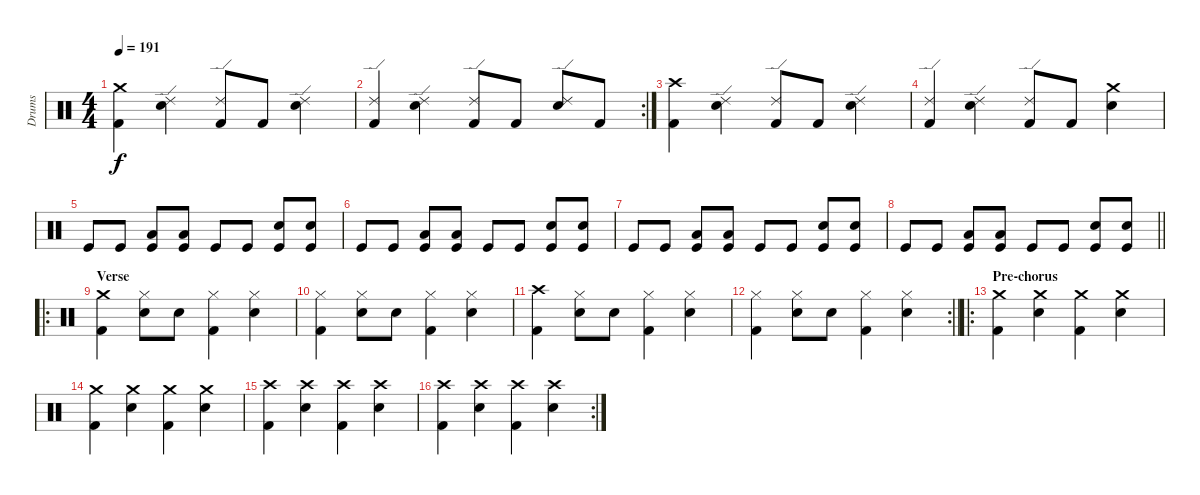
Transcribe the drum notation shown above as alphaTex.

\track ("Drums" "Drums") {instrument percussion}
\staff {score}
\articulation defaults
\ts (4 4)
\tempo 191
\clef neutral
\ks c
("Crash medium (hit)" "Kick (hit) 2").4{dy f} ("Ride (edge) 2" "Snare (hit) 2").4 ("Ride (edge) 2" "Kick (hit) 2").8 "Kick (hit) 2".8 ("Ride (edge) 2" "Snare (hit) 2").4 |
\rc 2
("Ride (edge) 2" "Kick (hit) 2").4 ("Ride (edge) 2" "Snare (hit) 2").4 ("Ride (edge) 2" "Kick (hit) 2").8 "Kick (hit) 2".8 ("Ride (edge) 2" "Snare (hit) 2").8 "Kick (hit) 2".8 |
("Crash high (hit)" "Kick (hit) 2").4 ("Ride (edge) 2" "Snare (hit) 2").4 ("Ride (edge) 2" "Kick (hit) 2").8 "Kick (hit) 2".8 ("Ride (edge) 2" "Snare (hit) 2").4 |
("Ride (edge) 2" "Kick (hit) 2").4 ("Ride (edge) 2" "Snare (hit) 2").4 ("Ride (edge) 2" "Kick (hit) 2").8 "Kick (hit) 2".8 ("Crash medium (hit)" "Snare (hit) 2").4 |
"Kick (hit)".8 "Kick (hit)".8 ("Low Floor Tom (hit)" "Kick (hit)").8 ("Low Floor Tom (hit)" "Kick (hit)").8 "Kick (hit)".8 "Kick (hit)".8 ("Electric Snare (hit)" "Kick (hit)").8 ("Electric Snare (hit)" "Kick (hit)").8 |
"Kick (hit)".8 "Kick (hit)".8 ("Low Floor Tom (hit)" "Kick (hit)").8 ("Low Floor Tom (hit)" "Kick (hit)").8 "Kick (hit)".8 "Kick (hit)".8 ("Electric Snare (hit)" "Kick (hit)").8 ("Electric Snare (hit)" "Kick (hit)").8 |
"Kick (hit)".8 "Kick (hit)".8 ("Low Floor Tom (hit)" "Kick (hit)").8 ("Low Floor Tom (hit)" "Kick (hit)").8 "Kick (hit)".8 "Kick (hit)".8 ("Electric Snare (hit)" "Kick (hit)").8 ("Electric Snare (hit)" "Kick (hit)").8 |
\barLineRight lightlight "Kick (hit)".8 "Kick (hit)".8
("Low Floor Tom (hit)" "Kick (hit)").8 ("Low Floor Tom (hit)" "Kick (hit)").8 "Kick (hit)".8 "Kick (hit)".8 ("Electric Snare (hit)" "Kick (hit)").8 ("Electric Snare (hit)" "Kick (hit)").8 |
\ro
\section ("" "Verse")
("Crash medium (hit)" "Kick (hit) 2").4 ("Hi-Hat (closed)" "Electric Snare (hit)").8 "Electric Snare (hit)".8 ("Hi-Hat (closed)" "Kick (hit) 2").4 ("Hi-Hat (closed)" "Electric Snare (hit)").4 |
("Hi-Hat (closed)" "Kick (hit) 2").4 ("Hi-Hat (closed)" "Electric Snare (hit)").8 "Electric Snare (hit)".8 ("Hi-Hat (closed)" "Kick (hit) 2").4 ("Hi-Hat (closed)" "Electric Snare (hit)").4 |
("Crash high (hit)" "Kick (hit) 2").4 ("Hi-Hat (closed)" "Electric Snare (hit)").8 "Electric Snare (hit)".8 ("Hi-Hat (closed)" "Kick (hit) 2").4 ("Hi-Hat (closed)" "Electric Snare (hit)").4 |
\rc 2
\barLineRight lightlight
("Hi-Hat (closed)" "Kick (hit) 2").4 ("Hi-Hat (closed)" "Electric Snare (hit)").8 "Electric Snare (hit)".8 ("Hi-Hat (closed)" "Kick (hit) 2").4 ("Hi-Hat (closed)" "Electric Snare (hit)").4 |
\ro
\section ("" "Pre-chorus")
("Crash medium (hit)" "Kick (hit) 2").4 ("Crash medium (hit)" "Snare (hit) 2").4 ("Crash medium (hit)" "Kick (hit) 2").4 ("Crash medium (hit)" "Snare (hit) 2").4 |
("Crash medium (hit)" "Kick (hit) 2").4 ("Crash medium (hit)" "Snare (hit) 2").4 ("Crash medium (hit)" "Kick (hit) 2").4 ("Crash medium (hit)" "Snare (hit) 2").4 |
("Crash high (hit)" "Kick (hit) 2").4 ("Crash high (hit)" "Snare (hit) 2").4 ("Crash high (hit)" "Kick (hit) 2").4 ("Crash high (hit)" "Snare (hit) 2").4 |
\rc 2
("Crash high (hit)" "Kick (hit) 2").4 ("Crash high (hit)" "Snare (hit) 2").4 ("Crash high (hit)" "Kick (hit) 2").4 ("Crash high (hit)" "Snare (hit) 2").4
